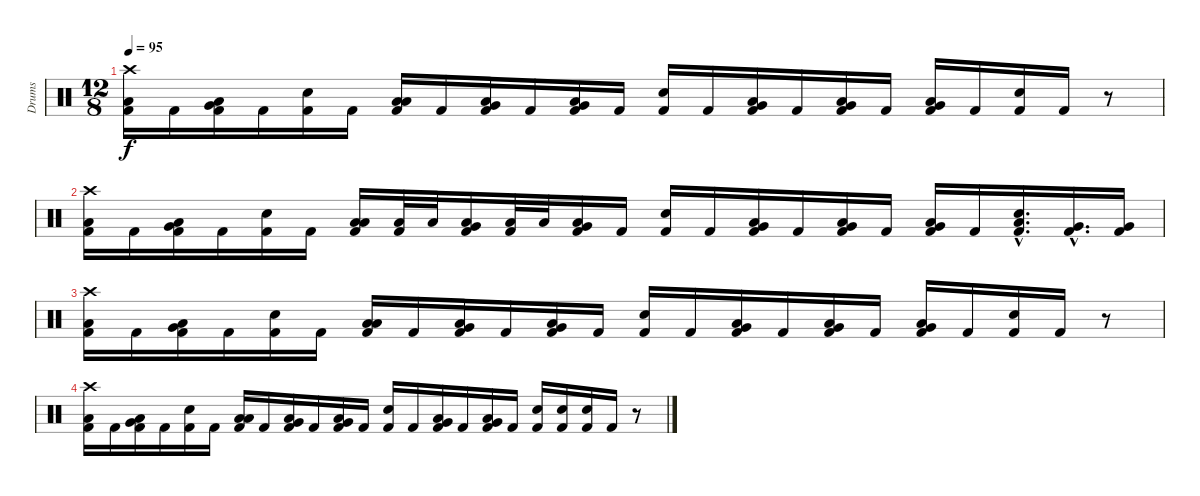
\track ("Drums" "Drums") {instrument percussion}
\staff {score}
\articulation defaults
\ts (12 8)
\tempo 95
\clef neutral
\ks c
("Crash high (hit)" "Low Tom (hit)" "Kick (hit) 2").16{dy f} "Kick (hit) 2".16 ("Very Low Tom (hit)" "Low Tom (hit)" "Kick (hit) 2").16 "Kick (hit) 2".16 ("Snare (hit) 2" "Kick (hit) 2").16 "Kick (hit) 2".16 ("Low Tom (hit)" "Low Tom (hit)" "Kick (hit) 2").16 "Kick (hit) 2".16 ("Very Low Tom (hit)" "Low Tom (hit)" "Kick (hit) 2").16 "Kick (hit) 2".16 ("Very Low Tom (hit)" "Low Tom (hit)" "Kick (hit) 2").16 "Kick (hit) 2".16 ("Snare (hit) 2" "Kick (hit) 2").16 "Kick (hit) 2".16 ("Very Low Tom (hit)" "Low Tom (hit)" "Kick (hit) 2").16 "Kick (hit) 2".16 ("Very Low Tom (hit)" "Low Tom (hit)" "Kick (hit) 2").16 "Kick (hit) 2".16 ("Very Low Tom (hit)" "Low Tom (hit)" "Kick (hit) 2").16 "Kick (hit) 2".16 ("Snare (hit) 2" "Kick (hit) 2").16 "Kick (hit) 2".16 r.8 |
("Crash high (hit)" "Low Tom (hit)" "Kick (hit) 2").16 "Kick (hit) 2".16 ("Very Low Tom (hit)" "Low Tom (hit)" "Kick (hit) 2").16 "Kick (hit) 2".16 ("Snare (hit) 2" "Kick (hit) 2").16 "Kick (hit) 2".16 ("Low Tom (hit)" "Low Tom (hit)" "Kick (hit) 2").16 ("Low Tom (hit)" "Kick (hit) 2").32 "Low Tom (hit)".32 ("Very Low Tom (hit)" "Low Tom (hit)" "Kick (hit) 2").16 ("Low Tom (hit)" "Kick (hit) 2").32 "Low Tom (hit)".32 ("Very Low Tom (hit)" "Low Tom (hit)" "Kick (hit) 2").16 "Kick (hit) 2".16 ("Snare (hit) 2" "Kick (hit) 2").16 "Kick (hit) 2".16 ("Very Low Tom (hit)" "Low Tom (hit)" "Kick (hit) 2").16 "Kick (hit) 2".16 ("Very Low Tom (hit)" "Low Tom (hit)" "Kick (hit) 2").16 "Kick (hit) 2".16 ("Very Low Tom (hit)" "Low Tom (hit)" "Kick (hit) 2").16 "Kick (hit) 2".16 ("Low Tom (hit)"{hac} "Snare (hit) 2"{hac} "Kick (hit) 2"{hac}).16{d} ("Very Low Tom (hit)"{hac} "Kick (hit) 2"{hac}).16{d} ("Very Low Tom (hit)" "Kick (hit) 2").16 |
("Crash high (hit)" "Low Tom (hit)" "Kick (hit) 2").16 "Kick (hit) 2".16 ("Very Low Tom (hit)" "Low Tom (hit)" "Kick (hit) 2").16 "Kick (hit) 2".16 ("Snare (hit) 2" "Kick (hit) 2").16 "Kick (hit) 2".16 ("Low Tom (hit)" "Low Tom (hit)" "Kick (hit) 2").16 "Kick (hit) 2".16 ("Very Low Tom (hit)" "Low Tom (hit)" "Kick (hit) 2").16 "Kick (hit) 2".16 ("Very Low Tom (hit)" "Low Tom (hit)" "Kick (hit) 2").16 "Kick (hit) 2".16 ("Snare (hit) 2" "Kick (hit) 2").16 "Kick (hit) 2".16 ("Very Low Tom (hit)" "Low Tom (hit)" "Kick (hit) 2").16 "Kick (hit) 2".16 ("Very Low Tom (hit)" "Low Tom (hit)" "Kick (hit) 2").16 "Kick (hit) 2".16 ("Very Low Tom (hit)" "Low Tom (hit)" "Kick (hit) 2").16 "Kick (hit) 2".16 ("Snare (hit) 2" "Kick (hit) 2").16 "Kick (hit) 2".16 r.8 |
("Crash high (hit)" "Low Tom (hit)" "Kick (hit) 2").16 "Kick (hit) 2".16 ("Very Low Tom (hit)" "Low Tom (hit)" "Kick (hit) 2").16 "Kick (hit) 2".16 ("Snare (hit) 2" "Kick (hit) 2").16 "Kick (hit) 2".16 ("Low Tom (hit)" "Low Tom (hit)" "Kick (hit) 2").16 "Kick (hit) 2".16 ("Very Low Tom (hit)" "Low Tom (hit)" "Kick (hit) 2").16 "Kick (hit) 2".16 ("Very Low Tom (hit)" "Low Tom (hit)" "Kick (hit) 2").16 "Kick (hit) 2".16 ("Snare (hit) 2" "Kick (hit) 2").16 "Kick (hit) 2".16 ("Very Low Tom (hit)" "Low Tom (hit)" "Kick (hit) 2").16 "Kick (hit) 2".16 ("Very Low Tom (hit)" "Low Tom (hit)" "Kick (hit) 2").16 "Kick (hit) 2".16 ("Snare (hit) 2" "Kick (hit) 2").16 ("Snare (hit) 2" "Kick (hit) 2").16 ("Snare (hit) 2" "Kick (hit) 2").16 "Kick (hit) 2".16 r.8
